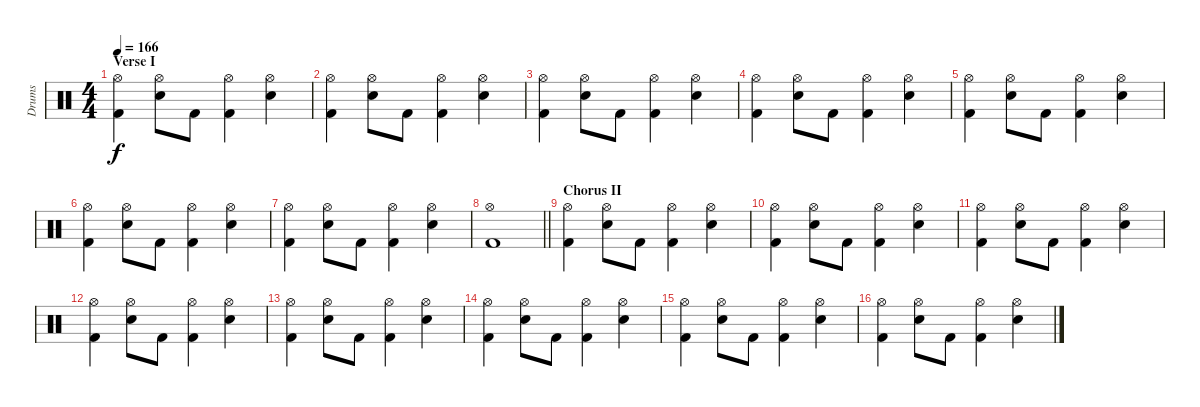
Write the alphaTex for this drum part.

\track ("Drums" "Drums") {instrument percussion}
\staff {score}
\articulation defaults
\ts (4 4)
\section ("" "Verse I")
\tempo 166
\clef neutral
\ks c
("Hi-Hat (open)" "Kick (hit) 2").4{dy f} ("Hi-Hat (open)" "Snare (hit) 2").8 "Kick (hit) 2".8 ("Hi-Hat (open)" "Kick (hit) 2").4 ("Hi-Hat (open)" "Snare (hit) 2").4 |
("Hi-Hat (open)" "Kick (hit) 2").4 ("Hi-Hat (open)" "Snare (hit) 2").8 "Kick (hit) 2".8 ("Hi-Hat (open)" "Kick (hit) 2").4 ("Hi-Hat (open)" "Snare (hit) 2").4 |
("Hi-Hat (open)" "Kick (hit) 2").4 ("Hi-Hat (open)" "Snare (hit) 2").8 "Kick (hit) 2".8 ("Hi-Hat (open)" "Kick (hit) 2").4 ("Hi-Hat (open)" "Snare (hit) 2").4 |
("Hi-Hat (open)" "Kick (hit) 2").4 ("Hi-Hat (open)" "Snare (hit) 2").8 "Kick (hit) 2".8 ("Hi-Hat (open)" "Kick (hit) 2").4 ("Hi-Hat (open)" "Snare (hit) 2").4 |
("Hi-Hat (open)" "Kick (hit) 2").4 ("Hi-Hat (open)" "Snare (hit) 2").8 "Kick (hit) 2".8 ("Hi-Hat (open)" "Kick (hit) 2").4 ("Hi-Hat (open)" "Snare (hit) 2").4 |
("Hi-Hat (open)" "Kick (hit) 2").4 ("Hi-Hat (open)" "Snare (hit) 2").8 "Kick (hit) 2".8 ("Hi-Hat (open)" "Kick (hit) 2").4 ("Hi-Hat (open)" "Snare (hit) 2").4 |
("Hi-Hat (open)" "Kick (hit) 2").4 ("Hi-Hat (open)" "Snare (hit) 2").8 "Kick (hit) 2".8 ("Hi-Hat (open)" "Kick (hit) 2").4 ("Hi-Hat (open)" "Snare (hit) 2").4 |
\barLineRight lightlight
("Hi-Hat (open)" "Kick (hit) 2").1 |
\section ("" "Chorus II")
("Hi-Hat (open)" "Kick (hit) 2").4 ("Hi-Hat (open)" "Snare (hit) 2").8 "Kick (hit) 2".8 ("Hi-Hat (open)" "Kick (hit) 2").4 ("Hi-Hat (open)" "Snare (hit) 2").4 |
("Hi-Hat (open)" "Kick (hit) 2").4 ("Hi-Hat (open)" "Snare (hit) 2").8 "Kick (hit) 2".8 ("Hi-Hat (open)" "Kick (hit) 2").4 ("Hi-Hat (open)" "Snare (hit) 2").4 |
("Hi-Hat (open)" "Kick (hit) 2").4 ("Hi-Hat (open)" "Snare (hit) 2").8 "Kick (hit) 2".8 ("Hi-Hat (open)" "Kick (hit) 2").4 ("Hi-Hat (open)" "Snare (hit) 2").4 |
("Hi-Hat (open)" "Kick (hit) 2").4 ("Hi-Hat (open)" "Snare (hit) 2").8 "Kick (hit) 2".8 ("Hi-Hat (open)" "Kick (hit) 2").4 ("Hi-Hat (open)" "Snare (hit) 2").4 |
("Hi-Hat (open)" "Kick (hit) 2").4 ("Hi-Hat (open)" "Snare (hit) 2").8 "Kick (hit) 2".8 ("Hi-Hat (open)" "Kick (hit) 2").4 ("Hi-Hat (open)" "Snare (hit) 2").4 |
("Hi-Hat (open)" "Kick (hit) 2").4 ("Hi-Hat (open)" "Snare (hit) 2").8 "Kick (hit) 2".8 ("Hi-Hat (open)" "Kick (hit) 2").4 ("Hi-Hat (open)" "Snare (hit) 2").4 |
("Hi-Hat (open)" "Kick (hit) 2").4 ("Hi-Hat (open)" "Snare (hit) 2").8 "Kick (hit) 2".8 ("Hi-Hat (open)" "Kick (hit) 2").4 ("Hi-Hat (open)" "Snare (hit) 2").4 |
("Hi-Hat (open)" "Kick (hit) 2").4 ("Hi-Hat (open)" "Snare (hit) 2").8 "Kick (hit) 2".8 ("Hi-Hat (open)" "Kick (hit) 2").4 ("Hi-Hat (open)" "Snare (hit) 2").4
